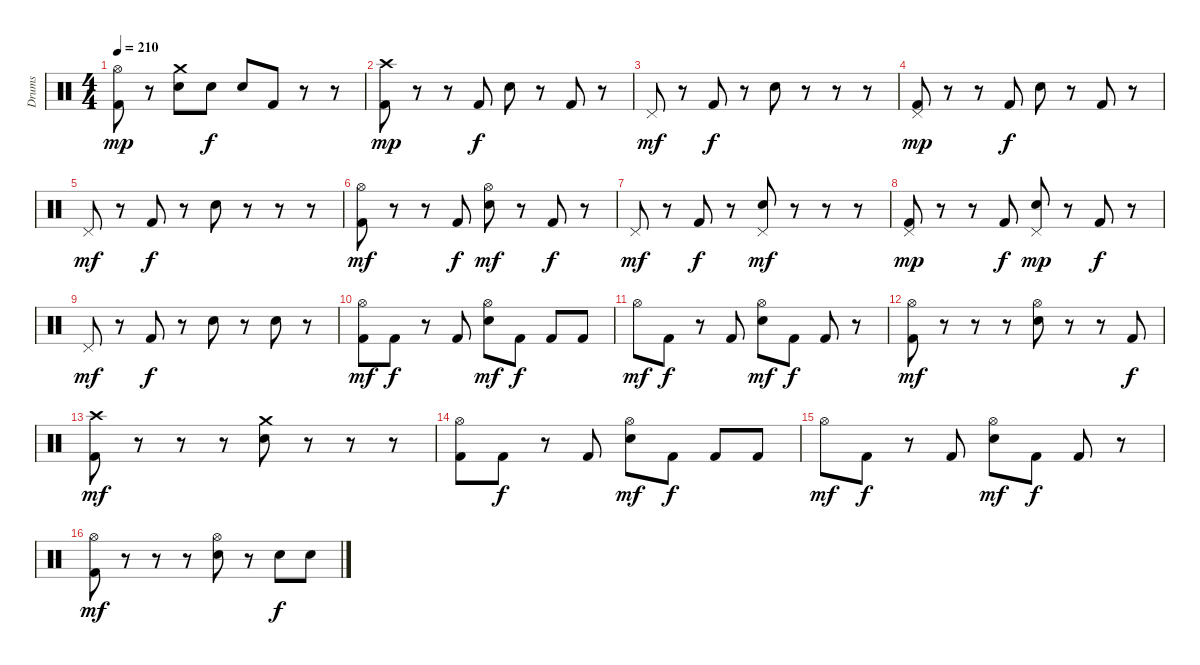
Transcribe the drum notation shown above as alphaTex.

\track ("Drums" "Drums") {instrument percussion}
\staff {score}
\articulation defaults
\ts (4 4)
\tempo 210
\clef neutral
\ks c
("Kick (hit) 2" "Hi-Hat (open)").8{dy mp} r.8 ("Snare (hit) 2" "Crash medium (hit)").8 "Snare (hit) 2".8{dy f} "Snare (hit) 2".8 "Kick (hit) 2".8 r.8 r.8 |
("Kick (hit) 2" "Crash high (hit)").8{dy mp} r.8 r.8 "Kick (hit) 2".8{dy f} "Snare (hit) 2".8 r.8 "Kick (hit) 2".8 r.8 |
"Pedal Hi-Hat (hit)".8{dy mf} r.8 "Kick (hit) 2".8{dy f} r.8 "Snare (hit) 2".8 r.8 r.8 r.8 |
("Kick (hit) 2" "Pedal Hi-Hat (hit)").8{dy mp} r.8 r.8 "Kick (hit) 2".8{dy f} "Snare (hit) 2".8 r.8 "Kick (hit) 2".8 r.8 |
"Pedal Hi-Hat (hit)".8{dy mf} r.8 "Kick (hit) 2".8{dy f} r.8 "Snare (hit) 2".8 r.8 r.8 r.8 |
("Kick (hit) 2" "Hi-Hat (open)").8{dy mf} r.8 r.8 "Kick (hit) 2".8{dy f} ("Snare (hit) 2" "Hi-Hat (open)").8{dy mf} r.8 "Kick (hit) 2".8{dy f} r.8 |
"Pedal Hi-Hat (hit)".8{dy mf} r.8 "Kick (hit) 2".8{dy f} r.8 ("Snare (hit) 2" "Pedal Hi-Hat (hit)").8{dy mf} r.8 r.8 r.8 |
("Kick (hit) 2" "Pedal Hi-Hat (hit)").8{dy mp} r.8 r.8 "Kick (hit) 2".8{dy f} ("Snare (hit) 2" "Pedal Hi-Hat (hit)").8{dy mp} r.8 "Kick (hit) 2".8{dy f} r.8 |
"Pedal Hi-Hat (hit)".8{dy mf} r.8 "Kick (hit) 2".8{dy f} r.8 "Snare (hit) 2".8 r.8 "Snare (hit) 2".8 r.8 |
("Kick (hit) 2" "Hi-Hat (open)").8{dy mf} "Kick (hit) 2".8{dy f} r.8 "Kick (hit) 2".8 ("Snare (hit) 2" "Hi-Hat (open)").8{dy mf} "Kick (hit) 2".8{dy f} "Kick (hit) 2".8 "Kick (hit) 2".8 |
"Hi-Hat (open)".8{dy mf} "Kick (hit) 2".8{dy f} r.8 "Kick (hit) 2".8 ("Snare (hit) 2" "Hi-Hat (open)").8{dy mf} "Kick (hit) 2".8{dy f} "Kick (hit) 2".8 r.8 |
("Kick (hit) 2" "Hi-Hat (open)").8{dy mf} r.8 r.8 r.8 ("Snare (hit) 2" "Hi-Hat (open)").8 r.8 r.8 "Kick (hit) 2".8{dy f} |
("Kick (hit) 2" "Crash high (hit)").8{dy mf} r.8 r.8 r.8 ("Snare (hit) 2" "Crash medium (hit)").8 r.8 r.8 r.8 |
("Kick (hit) 2" "Hi-Hat (open)").8 "Kick (hit) 2".8{dy f} r.8 "Kick (hit) 2".8 ("Snare (hit) 2" "Hi-Hat (open)").8{dy mf} "Kick (hit) 2".8{dy f} "Kick (hit) 2".8 "Kick (hit) 2".8 |
"Hi-Hat (open)".8{dy mf} "Kick (hit) 2".8{dy f} r.8 "Kick (hit) 2".8 ("Snare (hit) 2" "Hi-Hat (open)").8{dy mf} "Kick (hit) 2".8{dy f} "Kick (hit) 2".8 r.8 |
("Kick (hit) 2" "Hi-Hat (open)").8{dy mf} r.8 r.8 r.8 ("Snare (hit) 2" "Hi-Hat (open)").8 r.8 "Snare (hit) 2".8{dy f} "Snare (hit) 2".8
